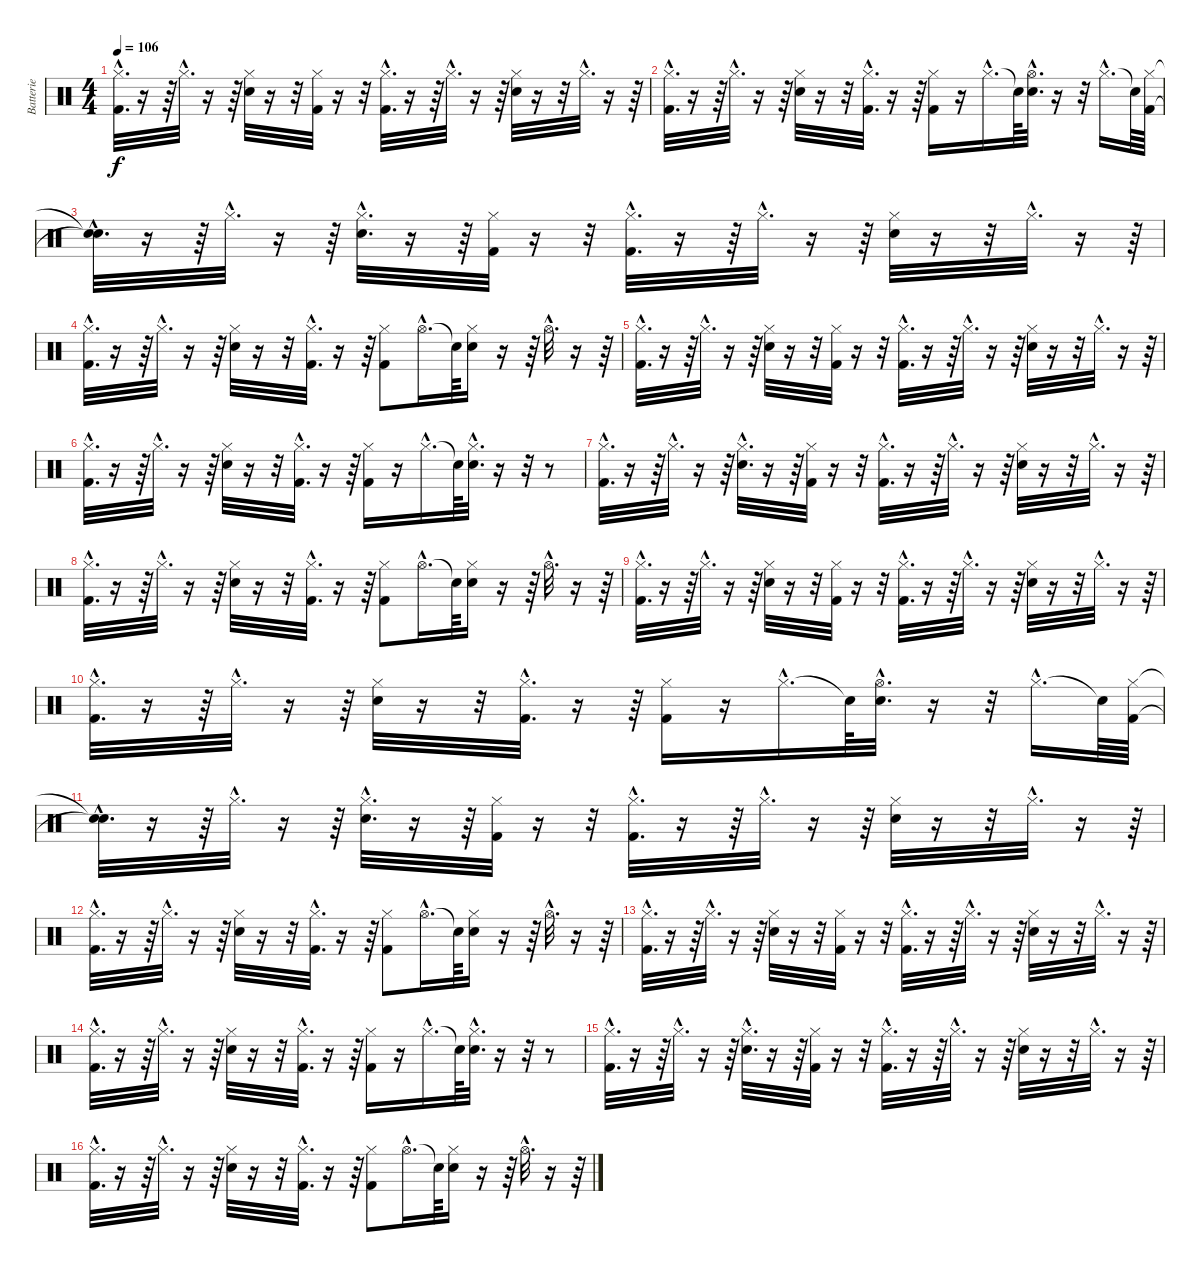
\track ("Batterie" "Batterie") {instrument percussion}
\staff {score}
\articulation defaults
\ts (4 4)
\tempo 106
\clef neutral
\ks c
("Hi-Hat (closed)"{hac} "Kick (hit) 2"{hac}).32{d dy f} r.16 r.64 "Hi-Hat (closed)"{hac}.32{d} r.16 r.64 ("Hi-Hat (closed)" "Snare (hit) 2").32 r.16 r.32 ("Hi-Hat (closed)" "Kick (hit) 2").32 r.16 r.32 ("Hi-Hat (closed)"{hac} "Kick (hit) 2"{hac}).32{d} r.16 r.64 "Hi-Hat (closed)"{hac}.32{d} r.16 r.64 ("Hi-Hat (closed)" "Snare (hit) 2").32 r.16 r.32 "Hi-Hat (closed)"{hac}.32{d} r.16 r.64 |
("Hi-Hat (closed)"{hac} "Kick (hit) 2"{hac}).32{d} r.16 r.64 "Hi-Hat (closed)"{hac}.32{d} r.16 r.64 ("Hi-Hat (closed)" "Snare (hit) 2").32 r.16 r.32 ("Hi-Hat (closed)"{hac} "Kick (hit) 2"{hac}).32{d} r.16 r.64 ("Hi-Hat (closed)" "Kick (hit) 2").16 r.16 "Hi-Hat (closed)"{hac}.16{d} "Snare (hit)"{t}.64 ("Hi-Hat (open)"{hac} "Snare (hit) 2"{hac}).32{d} r.16 r.32 "Hi-Hat (closed)"{hac}.16{d} "Snare (hit)"{t}.64 ("Hi-Hat (closed)" "Kick (hit) 2").64 |
("Snare (hit)"{hac t} "Snare (hit)"{hac t}).32{d} r.16 r.64 "Hi-Hat (closed)"{hac}.32{d} r.16 r.64 ("Hi-Hat (closed)"{hac} "Snare (hit) 2"{hac}).32{d} r.16 r.64 ("Hi-Hat (closed)" "Kick (hit) 2").32 r.16 r.32 ("Hi-Hat (closed)"{hac} "Kick (hit) 2"{hac}).32{d} r.16 r.64 "Hi-Hat (closed)"{hac}.32{d} r.16 r.64 ("Hi-Hat (closed)" "Snare (hit) 2").32 r.16 r.32 "Hi-Hat (closed)"{hac}.32{d} r.16 r.64 |
("Hi-Hat (closed)"{hac} "Kick (hit) 2"{hac}).32{d} r.16 r.64 "Hi-Hat (closed)"{hac}.32{d} r.16 r.64 ("Hi-Hat (closed)" "Snare (hit) 2").32 r.16 r.32 ("Hi-Hat (closed)"{hac} "Kick (hit) 2"{hac}).32{d} r.16 r.64 ("Hi-Hat (closed)" "Kick (hit) 2").8 "Hi-Hat (open)"{hac}.16{d} "Snare (hit)"{t}.64 ("Hi-Hat (closed)" "Snare (hit) 2").16 r.16 r.64 "Hi-Hat (open)"{hac}.32{d} r.16 r.64 |
("Hi-Hat (closed)"{hac} "Kick (hit) 2"{hac}).32{d} r.16 r.64 "Hi-Hat (closed)"{hac}.32{d} r.16 r.64 ("Hi-Hat (closed)" "Snare (hit) 2").32 r.16 r.32 ("Hi-Hat (closed)" "Kick (hit) 2").32 r.16 r.32 ("Hi-Hat (closed)"{hac} "Kick (hit) 2"{hac}).32{d} r.16 r.64 "Hi-Hat (closed)"{hac}.32{d} r.16 r.64 ("Hi-Hat (closed)" "Snare (hit) 2").32 r.16 r.32 "Hi-Hat (closed)"{hac}.32{d} r.16 r.64 |
("Hi-Hat (closed)"{hac} "Kick (hit) 2"{hac}).32{d} r.16 r.64 "Hi-Hat (closed)"{hac}.32{d} r.16 r.64 ("Hi-Hat (closed)" "Snare (hit) 2").32 r.16 r.32 ("Hi-Hat (closed)"{hac} "Kick (hit) 2"{hac}).32{d} r.16 r.64 ("Hi-Hat (closed)" "Kick (hit) 2").16 r.16 "Hi-Hat (closed)"{hac}.16{d} "Snare (hit)"{t}.64 ("Hi-Hat (closed)"{hac} "Snare (hit) 2"{hac}).32{d} r.16 r.32 r.8 |
("Hi-Hat (closed)"{hac} "Kick (hit) 2"{hac}).32{d} r.16 r.64 "Hi-Hat (closed)"{hac}.32{d} r.16 r.64 ("Hi-Hat (closed)"{hac} "Snare (hit) 2"{hac}).32{d} r.16 r.64 ("Hi-Hat (closed)" "Kick (hit) 2").32 r.16 r.32 ("Hi-Hat (closed)"{hac} "Kick (hit) 2"{hac}).32{d} r.16 r.64 "Hi-Hat (closed)"{hac}.32{d} r.16 r.64 ("Hi-Hat (closed)" "Snare (hit) 2").32 r.16 r.32 "Hi-Hat (closed)"{hac}.32{d} r.16 r.64 |
("Hi-Hat (closed)"{hac} "Kick (hit) 2"{hac}).32{d} r.16 r.64 "Hi-Hat (closed)"{hac}.32{d} r.16 r.64 ("Hi-Hat (closed)" "Snare (hit) 2").32 r.16 r.32 ("Hi-Hat (closed)"{hac} "Kick (hit) 2"{hac}).32{d} r.16 r.64 ("Hi-Hat (closed)" "Kick (hit) 2").8 "Hi-Hat (open)"{hac}.16{d} "Snare (hit)"{t}.64 ("Hi-Hat (closed)" "Snare (hit) 2").16 r.16 r.64 "Hi-Hat (open)"{hac}.32{d} r.16 r.64 |
("Hi-Hat (closed)"{hac} "Kick (hit) 2"{hac}).32{d} r.16 r.64 "Hi-Hat (closed)"{hac}.32{d} r.16 r.64 ("Hi-Hat (closed)" "Snare (hit) 2").32 r.16 r.32 ("Hi-Hat (closed)" "Kick (hit) 2").32 r.16 r.32 ("Hi-Hat (closed)"{hac} "Kick (hit) 2"{hac}).32{d} r.16 r.64 "Hi-Hat (closed)"{hac}.32{d} r.16 r.64 ("Hi-Hat (closed)" "Snare (hit) 2").32 r.16 r.32 "Hi-Hat (closed)"{hac}.32{d} r.16 r.64 |
("Hi-Hat (closed)"{hac} "Kick (hit) 2"{hac}).32{d} r.16 r.64 "Hi-Hat (closed)"{hac}.32{d} r.16 r.64 ("Hi-Hat (closed)" "Snare (hit) 2").32 r.16 r.32 ("Hi-Hat (closed)"{hac} "Kick (hit) 2"{hac}).32{d} r.16 r.64 ("Hi-Hat (closed)" "Kick (hit) 2").16 r.16 "Hi-Hat (closed)"{hac}.16{d} "Snare (hit)"{t}.64 ("Hi-Hat (open)"{hac} "Snare (hit) 2"{hac}).32{d} r.16 r.32 "Hi-Hat (closed)"{hac}.16{d} "Snare (hit)"{t}.64 ("Hi-Hat (closed)" "Kick (hit) 2").64 |
("Snare (hit)"{hac t} "Snare (hit)"{hac t}).32{d} r.16 r.64 "Hi-Hat (closed)"{hac}.32{d} r.16 r.64 ("Hi-Hat (closed)"{hac} "Snare (hit) 2"{hac}).32{d} r.16 r.64 ("Hi-Hat (closed)" "Kick (hit) 2").32 r.16 r.32 ("Hi-Hat (closed)"{hac} "Kick (hit) 2"{hac}).32{d} r.16 r.64 "Hi-Hat (closed)"{hac}.32{d} r.16 r.64 ("Hi-Hat (closed)" "Snare (hit) 2").32 r.16 r.32 "Hi-Hat (closed)"{hac}.32{d} r.16 r.64 |
("Hi-Hat (closed)"{hac} "Kick (hit) 2"{hac}).32{d} r.16 r.64 "Hi-Hat (closed)"{hac}.32{d} r.16 r.64 ("Hi-Hat (closed)" "Snare (hit) 2").32 r.16 r.32 ("Hi-Hat (closed)"{hac} "Kick (hit) 2"{hac}).32{d} r.16 r.64 ("Hi-Hat (closed)" "Kick (hit) 2").8 "Hi-Hat (open)"{hac}.16{d} "Snare (hit)"{t}.64 ("Hi-Hat (closed)" "Snare (hit) 2").16 r.16 r.64 "Hi-Hat (open)"{hac}.32{d} r.16 r.64 |
("Hi-Hat (closed)"{hac} "Kick (hit) 2"{hac}).32{d} r.16 r.64 "Hi-Hat (closed)"{hac}.32{d} r.16 r.64 ("Hi-Hat (closed)" "Snare (hit) 2").32 r.16 r.32 ("Hi-Hat (closed)" "Kick (hit) 2").32 r.16 r.32 ("Hi-Hat (closed)"{hac} "Kick (hit) 2"{hac}).32{d} r.16 r.64 "Hi-Hat (closed)"{hac}.32{d} r.16 r.64 ("Hi-Hat (closed)" "Snare (hit) 2").32 r.16 r.32 "Hi-Hat (closed)"{hac}.32{d} r.16 r.64 |
("Hi-Hat (closed)"{hac} "Kick (hit) 2"{hac}).32{d} r.16 r.64 "Hi-Hat (closed)"{hac}.32{d} r.16 r.64 ("Hi-Hat (closed)" "Snare (hit) 2").32 r.16 r.32 ("Hi-Hat (closed)"{hac} "Kick (hit) 2"{hac}).32{d} r.16 r.64 ("Hi-Hat (closed)" "Kick (hit) 2").16 r.16 "Hi-Hat (closed)"{hac}.16{d} "Snare (hit)"{t}.64 ("Hi-Hat (closed)"{hac} "Snare (hit) 2"{hac}).32{d} r.16 r.32 r.8 |
("Hi-Hat (closed)"{hac} "Kick (hit) 2"{hac}).32{d} r.16 r.64 "Hi-Hat (closed)"{hac}.32{d} r.16 r.64 ("Hi-Hat (closed)"{hac} "Snare (hit) 2"{hac}).32{d} r.16 r.64 ("Hi-Hat (closed)" "Kick (hit) 2").32 r.16 r.32 ("Hi-Hat (closed)"{hac} "Kick (hit) 2"{hac}).32{d} r.16 r.64 "Hi-Hat (closed)"{hac}.32{d} r.16 r.64 ("Hi-Hat (closed)" "Snare (hit) 2").32 r.16 r.32 "Hi-Hat (closed)"{hac}.32{d} r.16 r.64 |
("Hi-Hat (closed)"{hac} "Kick (hit) 2"{hac}).32{d} r.16 r.64 "Hi-Hat (closed)"{hac}.32{d} r.16 r.64 ("Hi-Hat (closed)" "Snare (hit) 2").32 r.16 r.32 ("Hi-Hat (closed)"{hac} "Kick (hit) 2"{hac}).32{d} r.16 r.64 ("Hi-Hat (closed)" "Kick (hit) 2").8 "Hi-Hat (open)"{hac}.16{d} "Snare (hit)"{t}.64 ("Hi-Hat (closed)" "Snare (hit) 2").16 r.16 r.64 "Hi-Hat (open)"{hac}.32{d} r.16 r.64
